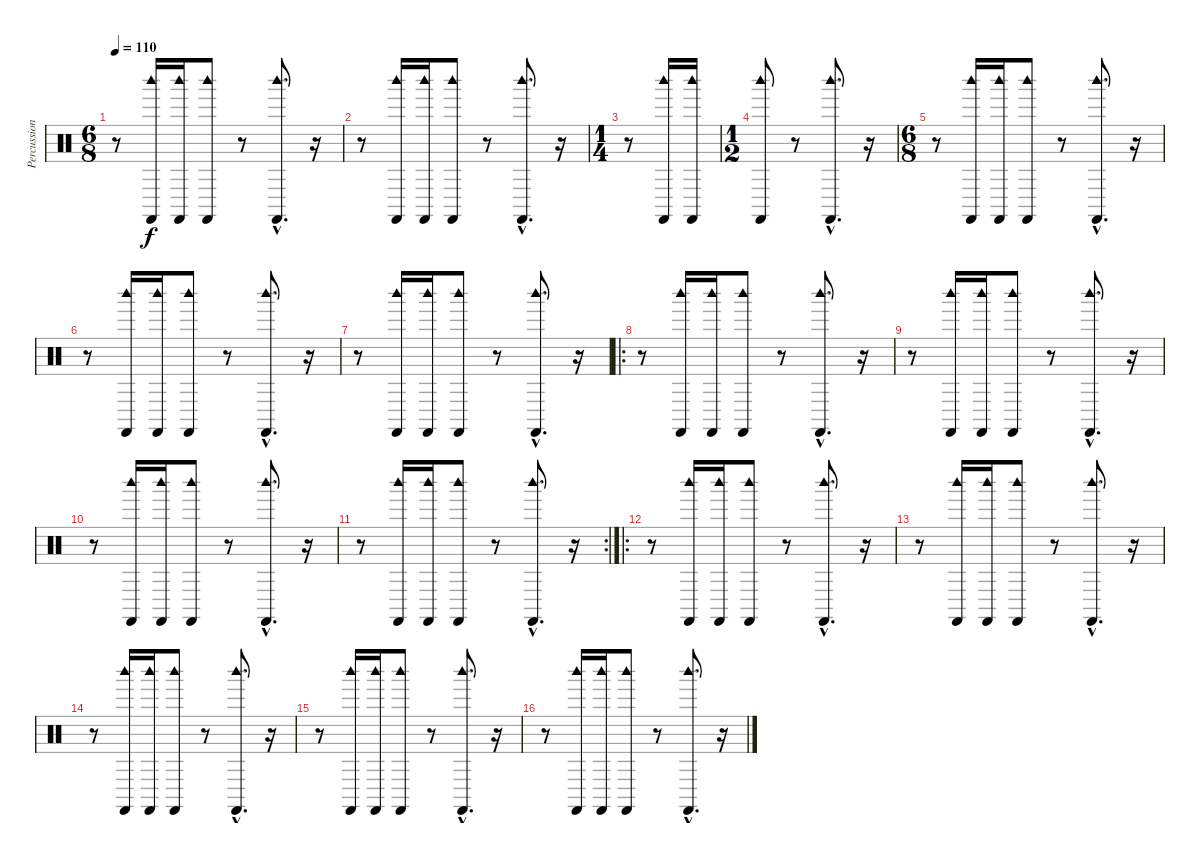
\track ("Percussion" "Percussion") {instrument percussion}
\staff {score}
\articulation defaults
\ts (6 8)
\tempo 110
\clef neutral
\ks c
r.8{dy f} ("Woodblock high (hit)" "Castanets (hit)").16 ("Woodblock high (hit)" "Castanets (hit)").16 ("Woodblock high (hit)" "Castanets (hit)").8 r.8 ("Woodblock high (hit)"{hac} "Castanets (hit)"{hac}).8{d} r.16 |
r.8 ("Woodblock high (hit)" "Castanets (hit)").16 ("Woodblock high (hit)" "Castanets (hit)").16 ("Woodblock high (hit)" "Castanets (hit)").8 r.8 ("Woodblock high (hit)"{hac} "Castanets (hit)"{hac}).8{d} r.16 |
\ts (1 4)
r.8 ("Woodblock high (hit)" "Castanets (hit)").16 ("Woodblock high (hit)" "Castanets (hit)").16 |
\ts (1 2)
("Woodblock high (hit)" "Castanets (hit)").8 r.8 ("Woodblock high (hit)"{hac} "Castanets (hit)"{hac}).8{d} r.16 |
\ts (6 8)
r.8 ("Woodblock high (hit)" "Castanets (hit)").16 ("Woodblock high (hit)" "Castanets (hit)").16 ("Woodblock high (hit)" "Castanets (hit)").8 r.8 ("Woodblock high (hit)"{hac} "Castanets (hit)"{hac}).8{d} r.16 |
r.8 ("Woodblock high (hit)" "Castanets (hit)").16 ("Woodblock high (hit)" "Castanets (hit)").16 ("Woodblock high (hit)" "Castanets (hit)").8 r.8 ("Woodblock high (hit)"{hac} "Castanets (hit)"{hac}).8{d} r.16 |
r.8 ("Woodblock high (hit)" "Castanets (hit)").16 ("Woodblock high (hit)" "Castanets (hit)").16 ("Woodblock high (hit)" "Castanets (hit)").8 r.8 ("Woodblock high (hit)"{hac} "Castanets (hit)"{hac}).8{d} r.16 |
\ro
r.8 ("Woodblock high (hit)" "Castanets (hit)").16 ("Woodblock high (hit)" "Castanets (hit)").16 ("Woodblock high (hit)" "Castanets (hit)").8 r.8 ("Woodblock high (hit)"{hac} "Castanets (hit)"{hac}).8{d} r.16 |
r.8 ("Woodblock high (hit)" "Castanets (hit)").16 ("Woodblock high (hit)" "Castanets (hit)").16 ("Woodblock high (hit)" "Castanets (hit)").8 r.8 ("Woodblock high (hit)"{hac} "Castanets (hit)"{hac}).8{d} r.16 |
r.8 ("Woodblock high (hit)" "Castanets (hit)").16 ("Woodblock high (hit)" "Castanets (hit)").16 ("Woodblock high (hit)" "Castanets (hit)").8 r.8 ("Woodblock high (hit)"{hac} "Castanets (hit)"{hac}).8{d} r.16 |
\rc 2
r.8 ("Woodblock high (hit)" "Castanets (hit)").16 ("Woodblock high (hit)" "Castanets (hit)").16 ("Woodblock high (hit)" "Castanets (hit)").8 r.8 ("Woodblock high (hit)"{hac} "Castanets (hit)"{hac}).8{d} r.16 |
\ro
r.8 ("Woodblock high (hit)" "Castanets (hit)").16 ("Woodblock high (hit)" "Castanets (hit)").16 ("Woodblock high (hit)" "Castanets (hit)").8 r.8 ("Woodblock high (hit)"{hac} "Castanets (hit)"{hac}).8{d} r.16 |
r.8 ("Woodblock high (hit)" "Castanets (hit)").16 ("Woodblock high (hit)" "Castanets (hit)").16 ("Woodblock high (hit)" "Castanets (hit)").8 r.8 ("Woodblock high (hit)"{hac} "Castanets (hit)"{hac}).8{d} r.16 |
r.8 ("Woodblock high (hit)" "Castanets (hit)").16 ("Woodblock high (hit)" "Castanets (hit)").16 ("Woodblock high (hit)" "Castanets (hit)").8 r.8 ("Woodblock high (hit)"{hac} "Castanets (hit)"{hac}).8{d} r.16 |
r.8 ("Woodblock high (hit)" "Castanets (hit)").16 ("Woodblock high (hit)" "Castanets (hit)").16 ("Woodblock high (hit)" "Castanets (hit)").8 r.8 ("Woodblock high (hit)"{hac} "Castanets (hit)"{hac}).8{d} r.16 |
r.8 ("Woodblock high (hit)" "Castanets (hit)").16 ("Woodblock high (hit)" "Castanets (hit)").16 ("Woodblock high (hit)" "Castanets (hit)").8 r.8 ("Woodblock high (hit)"{hac} "Castanets (hit)"{hac}).8{d} r.16
